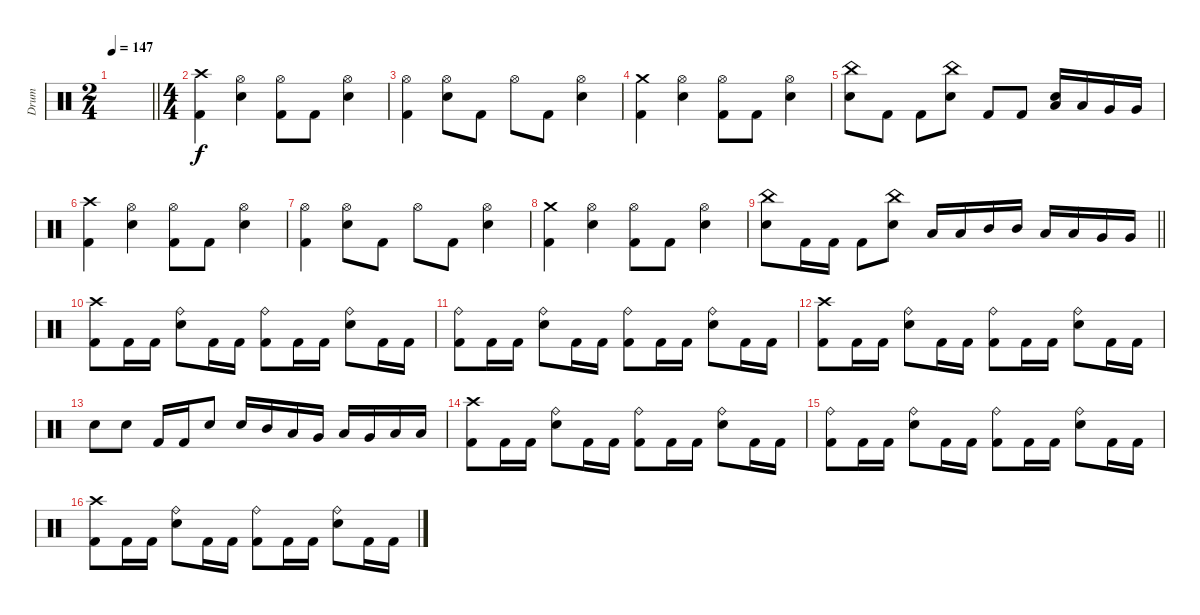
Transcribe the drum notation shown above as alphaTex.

\track ("Drum" "Drum") {instrument percussion}
\staff {score}
\articulation defaults
\ts (2 4)
\tempo 147
\clef neutral
\barLineRight lightlight
\ks c
|
\ts (4 4)
\section ("" "")
("Crash high (hit)" "Kick (hit) 2").4 ("Hi-Hat (open)" "Electric Snare (hit)").4 ("Hi-Hat (open)" "Kick (hit) 2").8 "Kick (hit) 2".8 ("Hi-Hat (open)" "Electric Snare (hit)").4 |
("Hi-Hat (open)" "Kick (hit) 2").4 ("Hi-Hat (open)" "Electric Snare (hit)").8 "Kick (hit) 2".8 "Hi-Hat (open)".8 "Kick (hit) 2".8 ("Hi-Hat (open)" "Electric Snare (hit)").4 |
("Crash medium (hit)" "Kick (hit) 2").4 ("Hi-Hat (open)" "Electric Snare (hit)").4 ("Hi-Hat (open)" "Kick (hit) 2").8 "Kick (hit) 2".8 ("Hi-Hat (open)" "Electric Snare (hit)").4 |
("China (hit)" "Electric Snare (hit)").8 "Kick (hit) 2".8 "Kick (hit) 2".8 ("China (hit)" "Electric Snare (hit)").8 "Kick (hit) 2".8 "Kick (hit) 2".8 ("Electric Snare (hit)" "Low Tom (hit)").16 "Low Tom (hit)".16 "Very Low Tom (hit)".16 "Very Low Tom (hit)".16 |
("Crash high (hit)" "Kick (hit) 2").4 ("Hi-Hat (open)" "Electric Snare (hit)").4 ("Hi-Hat (open)" "Kick (hit) 2").8 "Kick (hit) 2".8 ("Hi-Hat (open)" "Electric Snare (hit)").4 |
("Hi-Hat (open)" "Kick (hit) 2").4 ("Hi-Hat (open)" "Electric Snare (hit)").8 "Kick (hit) 2".8 "Hi-Hat (open)".8 "Kick (hit) 2".8 ("Hi-Hat (open)" "Electric Snare (hit)").4 |
("Crash medium (hit)" "Kick (hit) 2").4 ("Hi-Hat (open)" "Electric Snare (hit)").4 ("Hi-Hat (open)" "Kick (hit) 2").8 "Kick (hit) 2".8 ("Hi-Hat (open)" "Electric Snare (hit)").4 |
\barLineRight lightlight
("China (hit)" "Electric Snare (hit)").8 "Kick (hit) 2".16 "Kick (hit) 2".16 "Kick (hit) 2".8 ("China (hit)" "Electric Snare (hit)").8 "Low Floor Tom (hit)".16 "Low Floor Tom (hit)".16 "Mid Tom (hit)".16 "Mid Tom (hit)".16 "Low Tom (hit)".16 "Low Tom (hit)".16 "Very Low Tom (hit)".16 "Very Low Tom (hit)".16 |
\section ("" "")
("Crash high (hit)" "Kick (hit) 2").8 "Kick (hit) 2".16 "Kick (hit) 2".16 ("Ride (bell)" "Electric Snare (hit)").8 "Kick (hit) 2".16 "Kick (hit) 2".16 ("Ride (bell)" "Kick (hit) 2").8 "Kick (hit) 2".16 "Kick (hit) 2".16 ("Ride (bell)" "Electric Snare (hit)").8 "Kick (hit) 2".16 "Kick (hit) 2".16 |
("Ride (bell)" "Kick (hit) 2").8 "Kick (hit) 2".16 "Kick (hit) 2".16 ("Ride (bell)" "Electric Snare (hit)").8 "Kick (hit) 2".16 "Kick (hit) 2".16 ("Ride (bell)" "Kick (hit) 2").8 "Kick (hit) 2".16 "Kick (hit) 2".16 ("Ride (bell)" "Electric Snare (hit)").8 "Kick (hit) 2".16 "Kick (hit) 2".16 |
("Crash high (hit)" "Kick (hit) 2").8 "Kick (hit) 2".16 "Kick (hit) 2".16 ("Ride (bell)" "Electric Snare (hit)").8 "Kick (hit) 2".16 "Kick (hit) 2".16 ("Ride (bell)" "Kick (hit) 2").8 "Kick (hit) 2".16 "Kick (hit) 2".16 ("Ride (bell)" "Electric Snare (hit)").8 "Kick (hit) 2".16 "Kick (hit) 2".16 |
"Electric Snare (hit)".8 "Electric Snare (hit)".8 "Kick (hit) 2".16 "Kick (hit) 2".16 "Electric Snare (hit)".8 "Electric Snare (hit)".16 "Mid Tom (hit)".16 "Low Tom (hit)".16 "Very Low Tom (hit)".16 "Low Tom (hit)".16 "Very Low Tom (hit)".16 "Low Floor Tom (hit)".16 "Low Floor Tom (hit)".16 |
("Crash high (hit)" "Kick (hit) 2").8 "Kick (hit) 2".16 "Kick (hit) 2".16 ("Ride (bell)" "Electric Snare (hit)").8 "Kick (hit) 2".16 "Kick (hit) 2".16 ("Ride (bell)" "Kick (hit) 2").8 "Kick (hit) 2".16 "Kick (hit) 2".16 ("Ride (bell)" "Electric Snare (hit)").8 "Kick (hit) 2".16 "Kick (hit) 2".16 |
("Ride (bell)" "Kick (hit) 2").8 "Kick (hit) 2".16 "Kick (hit) 2".16 ("Ride (bell)" "Electric Snare (hit)").8 "Kick (hit) 2".16 "Kick (hit) 2".16 ("Ride (bell)" "Kick (hit) 2").8 "Kick (hit) 2".16 "Kick (hit) 2".16 ("Ride (bell)" "Electric Snare (hit)").8 "Kick (hit) 2".16 "Kick (hit) 2".16 |
("Crash high (hit)" "Kick (hit) 2").8 "Kick (hit) 2".16 "Kick (hit) 2".16 ("Ride (bell)" "Electric Snare (hit)").8 "Kick (hit) 2".16 "Kick (hit) 2".16 ("Ride (bell)" "Kick (hit) 2").8 "Kick (hit) 2".16 "Kick (hit) 2".16 ("Ride (bell)" "Electric Snare (hit)").8 "Kick (hit) 2".16 "Kick (hit) 2".16
